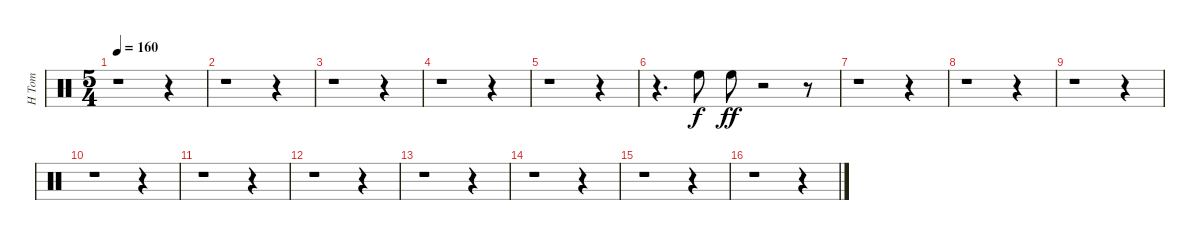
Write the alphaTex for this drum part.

\track ("H Tom" "H Tom") {instrument percussion}
\staff {score}
\articulation defaults
\ts (5 4)
\tempo 160
\clef neutral
\ks c
r.1{dy f} r.4 |
r.1 r.4 |
r.1 r.4 |
r.1 r.4 |
r.1 r.4 |
r.4{d} "High Floor Tom (hit)".8 "High Floor Tom (hit)".8{dy ff} r.2 r.8 |
r.1 r.4 |
r.1 r.4 |
r.1 r.4 |
r.1 r.4 |
r.1 r.4 |
r.1 r.4 |
r.1 r.4 |
r.1 r.4 |
r.1 r.4 |
r.1 r.4
